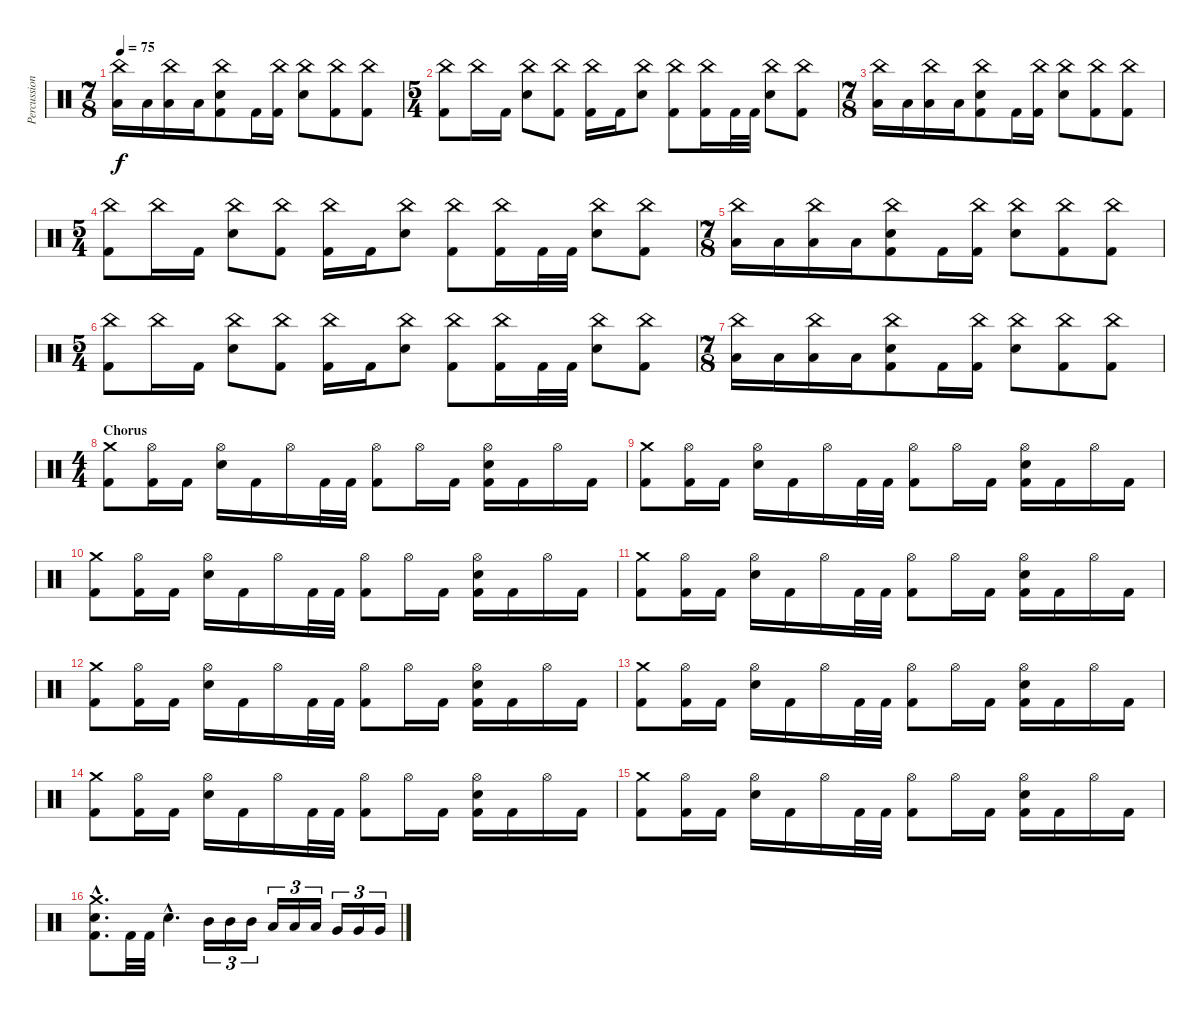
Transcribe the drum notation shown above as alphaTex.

\track ("Percussion" "Percussion") {instrument percussion}
\staff {score}
\articulation defaults
\ts (7 8)
\tempo 75
\clef neutral
\ks c
("China (hit)" "Low Tom (hit)").16{dy f} "Low Tom (hit)".16 ("China (hit)" "Low Tom (hit)").16 "Low Tom (hit)".16 ("China (hit)" "Electric Snare (hit)" "Kick (hit) 2").8 "Kick (hit) 2".16 ("China (hit)" "Kick (hit) 2").16 ("China (hit)" "Electric Snare (hit)").8 ("China (hit)" "Kick (hit) 2").8 ("China (hit)" "Kick (hit) 2").8 |
\ts (5 4)
("China (hit)" "Kick (hit) 2").8 "China (hit)".16 "Kick (hit) 2".16 ("China (hit)" "Electric Snare (hit)").8 ("China (hit)" "Kick (hit) 2").8 ("China (hit)" "Kick (hit) 2").16 "Kick (hit) 2".16 ("China (hit)" "Electric Snare (hit)").8 ("China (hit)" "Kick (hit) 2").8 ("China (hit)" "Kick (hit) 2").16 "Kick (hit) 2".32 "Kick (hit) 2".32 ("China (hit)" "Electric Snare (hit)").8 ("China (hit)" "Kick (hit) 2").8 |
\ts (7 8)
("China (hit)" "Low Tom (hit)").16 "Low Tom (hit)".16 ("China (hit)" "Low Tom (hit)").16 "Low Tom (hit)".16 ("China (hit)" "Electric Snare (hit)" "Kick (hit) 2").8 "Kick (hit) 2".16 ("China (hit)" "Kick (hit) 2").16 ("China (hit)" "Electric Snare (hit)").8 ("China (hit)" "Kick (hit) 2").8 ("China (hit)" "Kick (hit) 2").8 |
\ts (5 4)
("China (hit)" "Kick (hit) 2").8 "China (hit)".16 "Kick (hit) 2".16 ("China (hit)" "Electric Snare (hit)").8 ("China (hit)" "Kick (hit) 2").8 ("China (hit)" "Kick (hit) 2").16 "Kick (hit) 2".16 ("China (hit)" "Electric Snare (hit)").8 ("China (hit)" "Kick (hit) 2").8 ("China (hit)" "Kick (hit) 2").16 "Kick (hit) 2".32 "Kick (hit) 2".32 ("China (hit)" "Electric Snare (hit)").8 ("China (hit)" "Kick (hit) 2").8 |
\ts (7 8)
("China (hit)" "Low Tom (hit)").16 "Low Tom (hit)".16 ("China (hit)" "Low Tom (hit)").16 "Low Tom (hit)".16 ("China (hit)" "Electric Snare (hit)" "Kick (hit) 2").8 "Kick (hit) 2".16 ("China (hit)" "Kick (hit) 2").16 ("China (hit)" "Electric Snare (hit)").8 ("China (hit)" "Kick (hit) 2").8 ("China (hit)" "Kick (hit) 2").8 |
\ts (5 4)
("China (hit)" "Kick (hit) 2").8 "China (hit)".16 "Kick (hit) 2".16 ("China (hit)" "Electric Snare (hit)").8 ("China (hit)" "Kick (hit) 2").8 ("China (hit)" "Kick (hit) 2").16 "Kick (hit) 2".16 ("China (hit)" "Electric Snare (hit)").8 ("China (hit)" "Kick (hit) 2").8 ("China (hit)" "Kick (hit) 2").16 "Kick (hit) 2".32 "Kick (hit) 2".32 ("China (hit)" "Electric Snare (hit)").8 ("China (hit)" "Kick (hit) 2").8 |
\ts (7 8)
("China (hit)" "Low Tom (hit)").16 "Low Tom (hit)".16 ("China (hit)" "Low Tom (hit)").16 "Low Tom (hit)".16 ("China (hit)" "Electric Snare (hit)" "Kick (hit) 2").8 "Kick (hit) 2".16 ("China (hit)" "Kick (hit) 2").16 ("China (hit)" "Electric Snare (hit)").8 ("China (hit)" "Kick (hit) 2").8 ("China (hit)" "Kick (hit) 2").8 |
\ts (4 4)
\section ("" "Chorus")
("Crash medium (hit)" "Kick (hit) 2").8 ("Hi-Hat (open)" "Kick (hit) 2").16 "Kick (hit) 2".16 ("Hi-Hat (open)" "Electric Snare (hit)").16 "Kick (hit) 2".16 "Hi-Hat (open)".16 "Kick (hit) 2".32 "Kick (hit) 2".32 ("Hi-Hat (open)" "Kick (hit) 2").8 "Hi-Hat (open)".16 "Kick (hit) 2".16 ("Hi-Hat (open)" "Electric Snare (hit)" "Kick (hit) 2").16 "Kick (hit) 2".16 "Hi-Hat (open)".16 "Kick (hit) 2".16 |
("Crash medium (hit)" "Kick (hit) 2").8 ("Hi-Hat (open)" "Kick (hit) 2").16 "Kick (hit) 2".16 ("Hi-Hat (open)" "Electric Snare (hit)").16 "Kick (hit) 2".16 "Hi-Hat (open)".16 "Kick (hit) 2".32 "Kick (hit) 2".32 ("Hi-Hat (open)" "Kick (hit) 2").8 "Hi-Hat (open)".16 "Kick (hit) 2".16 ("Hi-Hat (open)" "Electric Snare (hit)" "Kick (hit) 2").16 "Kick (hit) 2".16 "Hi-Hat (open)".16 "Kick (hit) 2".16 |
("Crash medium (hit)" "Kick (hit) 2").8 ("Hi-Hat (open)" "Kick (hit) 2").16 "Kick (hit) 2".16 ("Hi-Hat (open)" "Electric Snare (hit)").16 "Kick (hit) 2".16 "Hi-Hat (open)".16 "Kick (hit) 2".32 "Kick (hit) 2".32 ("Hi-Hat (open)" "Kick (hit) 2").8 "Hi-Hat (open)".16 "Kick (hit) 2".16 ("Hi-Hat (open)" "Electric Snare (hit)" "Kick (hit) 2").16 "Kick (hit) 2".16 "Hi-Hat (open)".16 "Kick (hit) 2".16 |
("Crash medium (hit)" "Kick (hit) 2").8 ("Hi-Hat (open)" "Kick (hit) 2").16 "Kick (hit) 2".16 ("Hi-Hat (open)" "Electric Snare (hit)").16 "Kick (hit) 2".16 "Hi-Hat (open)".16 "Kick (hit) 2".32 "Kick (hit) 2".32 ("Hi-Hat (open)" "Kick (hit) 2").8 "Hi-Hat (open)".16 "Kick (hit) 2".16 ("Hi-Hat (open)" "Electric Snare (hit)" "Kick (hit) 2").16 "Kick (hit) 2".16 "Hi-Hat (open)".16 "Kick (hit) 2".16 |
("Crash medium (hit)" "Kick (hit) 2").8 ("Hi-Hat (open)" "Kick (hit) 2").16 "Kick (hit) 2".16 ("Hi-Hat (open)" "Electric Snare (hit)").16 "Kick (hit) 2".16 "Hi-Hat (open)".16 "Kick (hit) 2".32 "Kick (hit) 2".32 ("Hi-Hat (open)" "Kick (hit) 2").8 "Hi-Hat (open)".16 "Kick (hit) 2".16 ("Hi-Hat (open)" "Electric Snare (hit)" "Kick (hit) 2").16 "Kick (hit) 2".16 "Hi-Hat (open)".16 "Kick (hit) 2".16 |
("Crash medium (hit)" "Kick (hit) 2").8 ("Hi-Hat (open)" "Kick (hit) 2").16 "Kick (hit) 2".16 ("Hi-Hat (open)" "Electric Snare (hit)").16 "Kick (hit) 2".16 "Hi-Hat (open)".16 "Kick (hit) 2".32 "Kick (hit) 2".32 ("Hi-Hat (open)" "Kick (hit) 2").8 "Hi-Hat (open)".16 "Kick (hit) 2".16 ("Hi-Hat (open)" "Electric Snare (hit)" "Kick (hit) 2").16 "Kick (hit) 2".16 "Hi-Hat (open)".16 "Kick (hit) 2".16 |
("Crash medium (hit)" "Kick (hit) 2").8 ("Hi-Hat (open)" "Kick (hit) 2").16 "Kick (hit) 2".16 ("Hi-Hat (open)" "Electric Snare (hit)").16 "Kick (hit) 2".16 "Hi-Hat (open)".16 "Kick (hit) 2".32 "Kick (hit) 2".32 ("Hi-Hat (open)" "Kick (hit) 2").8 "Hi-Hat (open)".16 "Kick (hit) 2".16 ("Hi-Hat (open)" "Electric Snare (hit)" "Kick (hit) 2").16 "Kick (hit) 2".16 "Hi-Hat (open)".16 "Kick (hit) 2".16 |
("Crash medium (hit)" "Kick (hit) 2").8 ("Hi-Hat (open)" "Kick (hit) 2").16 "Kick (hit) 2".16 ("Hi-Hat (open)" "Electric Snare (hit)").16 "Kick (hit) 2".16 "Hi-Hat (open)".16 "Kick (hit) 2".32 "Kick (hit) 2".32 ("Hi-Hat (open)" "Kick (hit) 2").8 "Hi-Hat (open)".16 "Kick (hit) 2".16 ("Hi-Hat (open)" "Electric Snare (hit)" "Kick (hit) 2").16 "Kick (hit) 2".16 "Hi-Hat (open)".16 "Kick (hit) 2".16 |
("Crash medium (hit)"{hac} "Electric Snare (hit)"{hac} "Kick (hit) 2"{hac}).8{d} "Kick (hit) 2".32 "Kick (hit) 2".32 "Electric Snare (hit)"{hac}.4{d} "Mid Tom (hit)".16{tu (3 2)} "Mid Tom (hit)".16{tu (3 2)} "Mid Tom (hit)".16{tu (3 2)} "Low Tom (hit)".16{tu (3 2)} "Low Tom (hit)".16{tu (3 2)} "Low Tom (hit)".16{tu (3 2)} "Very Low Tom (hit)".16{tu (3 2)} "Very Low Tom (hit)".16{tu (3 2)} "Very Low Tom (hit)".16{tu (3 2)}
